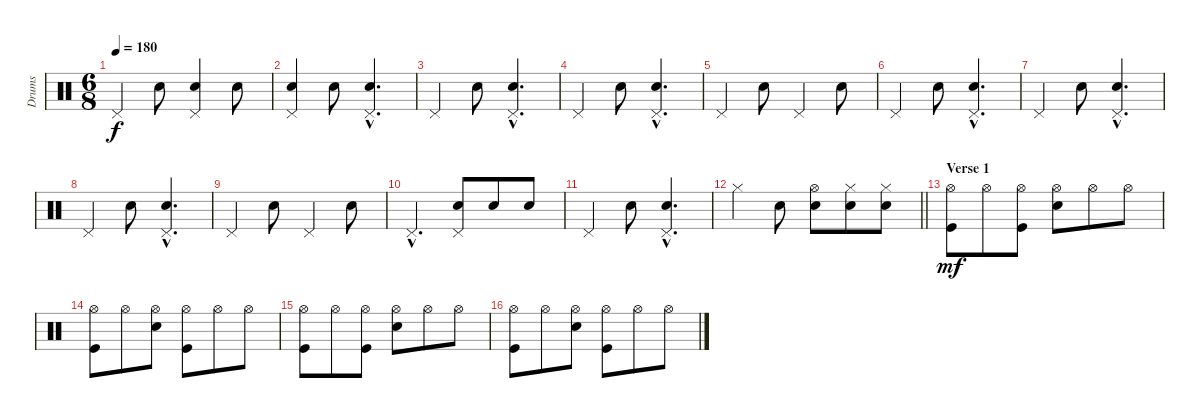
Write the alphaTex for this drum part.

\track ("Drums" "Drums") {instrument percussion}
\staff {score}
\articulation defaults
\ts (6 8)
\tempo 180
\clef neutral
\ks c "Pedal Hi-Hat (hit)".4{dy f} "Electric Snare (hit)".8
("Pedal Hi-Hat (hit)" "Electric Snare (hit)").4 "Electric Snare (hit)".8 |
("Pedal Hi-Hat (hit)" "Electric Snare (hit)").4 "Electric Snare (hit)".8 ("Pedal Hi-Hat (hit)"{hac} "Electric Snare (hit)"{hac}).4{d} |
"Pedal Hi-Hat (hit)".4 "Electric Snare (hit)".8 ("Pedal Hi-Hat (hit)"{hac} "Electric Snare (hit)"{hac}).4{d} |
"Pedal Hi-Hat (hit)".4 "Electric Snare (hit)".8 ("Pedal Hi-Hat (hit)"{hac} "Electric Snare (hit)"{hac}).4{d} |
"Pedal Hi-Hat (hit)".4 "Electric Snare (hit)".8 "Pedal Hi-Hat (hit)".4 "Electric Snare (hit)".8 |
"Pedal Hi-Hat (hit)".4 "Electric Snare (hit)".8 ("Pedal Hi-Hat (hit)"{hac} "Electric Snare (hit)"{hac}).4{d} |
"Pedal Hi-Hat (hit)".4 "Electric Snare (hit)".8 ("Pedal Hi-Hat (hit)"{hac} "Electric Snare (hit)"{hac}).4{d} |
"Pedal Hi-Hat (hit)".4 "Electric Snare (hit)".8 ("Pedal Hi-Hat (hit)"{hac} "Electric Snare (hit)"{hac}).4{d} |
"Pedal Hi-Hat (hit)".4 "Electric Snare (hit)".8 "Pedal Hi-Hat (hit)".4 "Electric Snare (hit)".8 |
"Pedal Hi-Hat (hit)"{hac}.4{d} ("Pedal Hi-Hat (hit)" "Electric Snare (hit)").8 "Electric Snare (hit)".8 "Electric Snare (hit)".8 |
"Pedal Hi-Hat (hit)".4 "Electric Snare (hit)".8 ("Pedal Hi-Hat (hit)"{hac} "Electric Snare (hit)"{hac}).4{d} |
\barLineRight lightlight "Hi-Hat (closed)".4 "Electric Snare (hit)".8
("Hi-Hat (open)" "Electric Snare (hit)").8 ("Hi-Hat (closed)" "Electric Snare (hit)").8 ("Hi-Hat (closed)" "Electric Snare (hit)").8 |
\section ("" "Verse 1")
("Hi-Hat (open)" "Kick (hit)").8{dy mf} "Hi-Hat (open)".8 ("Hi-Hat (open)" "Kick (hit)").8 ("Hi-Hat (open)" "Electric Snare (hit)").8 "Hi-Hat (open)".8 "Hi-Hat (open)".8 |
("Hi-Hat (open)" "Kick (hit)").8 "Hi-Hat (open)".8 ("Hi-Hat (open)" "Electric Snare (hit)").8 ("Hi-Hat (open)" "Kick (hit)").8 "Hi-Hat (open)".8 "Hi-Hat (open)".8 |
("Hi-Hat (open)" "Kick (hit)").8 "Hi-Hat (open)".8 ("Hi-Hat (open)" "Kick (hit)").8 ("Hi-Hat (open)" "Electric Snare (hit)").8 "Hi-Hat (open)".8 "Hi-Hat (open)".8 |
("Hi-Hat (open)" "Kick (hit)").8 "Hi-Hat (open)".8 ("Hi-Hat (open)" "Electric Snare (hit)").8 ("Hi-Hat (open)" "Kick (hit)").8 "Hi-Hat (open)".8 "Hi-Hat (open)".8
